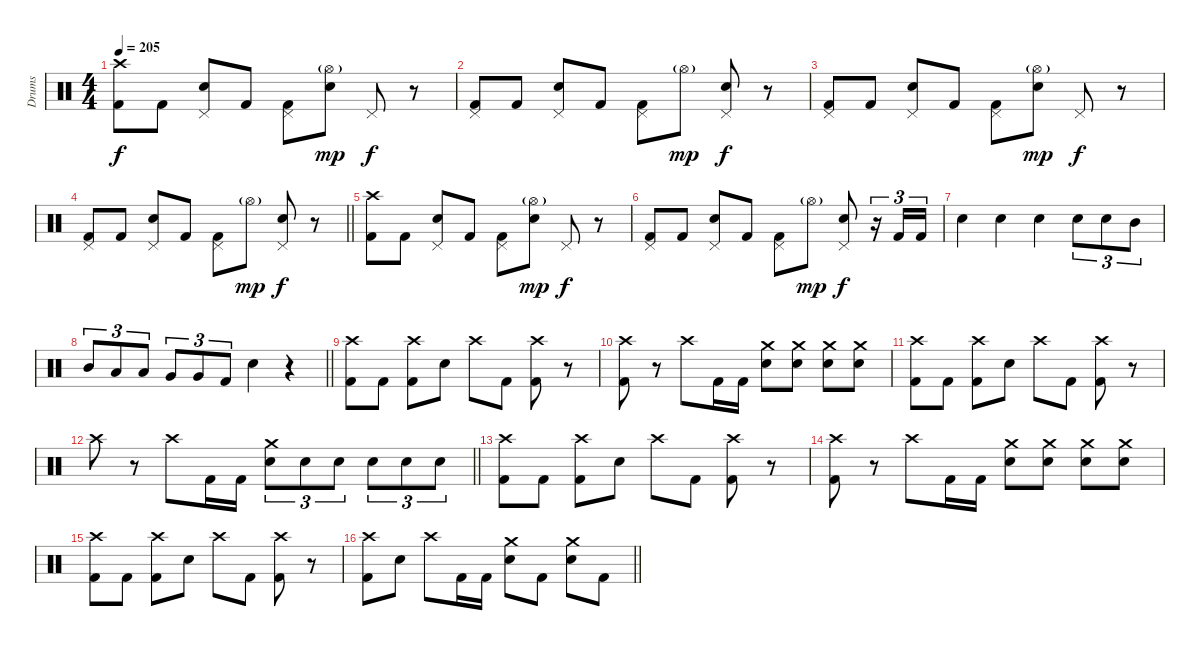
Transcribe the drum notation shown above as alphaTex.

\track ("Drums" "Drums") {instrument percussion}
\staff {score}
\articulation defaults
\ts (4 4)
\tempo 205
\clef neutral
\ks c
("Crash high (hit)" "Kick (hit) 2").8{dy f} "Kick (hit) 2".8 ("Pedal Hi-Hat (hit)" "Electric Snare (hit)").8 "Kick (hit) 2".8 ("Pedal Hi-Hat (hit)" "Kick (hit) 2").8 ("Hi-Hat (open)"{g} "Electric Snare (hit)").8{dy mp} "Pedal Hi-Hat (hit)".8{dy f} r.8 |
("Pedal Hi-Hat (hit)" "Kick (hit) 2").8 "Kick (hit) 2".8 ("Pedal Hi-Hat (hit)" "Electric Snare (hit)").8 "Kick (hit) 2".8 ("Pedal Hi-Hat (hit)" "Kick (hit) 2").8 "Hi-Hat (open)"{g}.8{dy mp} ("Pedal Hi-Hat (hit)" "Electric Snare (hit)").8{dy f} r.8 |
("Pedal Hi-Hat (hit)" "Kick (hit) 2").8 "Kick (hit) 2".8 ("Pedal Hi-Hat (hit)" "Electric Snare (hit)").8 "Kick (hit) 2".8 ("Pedal Hi-Hat (hit)" "Kick (hit) 2").8 ("Hi-Hat (open)"{g} "Electric Snare (hit)").8{dy mp} "Pedal Hi-Hat (hit)".8{dy f} r.8 |
\barLineRight lightlight
("Pedal Hi-Hat (hit)" "Kick (hit) 2").8 "Kick (hit) 2".8 ("Pedal Hi-Hat (hit)" "Electric Snare (hit)").8 "Kick (hit) 2".8 ("Pedal Hi-Hat (hit)" "Kick (hit) 2").8 "Hi-Hat (open)"{g}.8{dy mp} ("Pedal Hi-Hat (hit)" "Electric Snare (hit)").8{dy f} r.8 |
("Crash high (hit)" "Kick (hit) 2").8 "Kick (hit) 2".8 ("Pedal Hi-Hat (hit)" "Electric Snare (hit)").8 "Kick (hit) 2".8 ("Pedal Hi-Hat (hit)" "Kick (hit) 2").8 ("Hi-Hat (open)"{g} "Electric Snare (hit)").8{dy mp} "Pedal Hi-Hat (hit)".8{dy f} r.8 |
("Pedal Hi-Hat (hit)" "Kick (hit) 2").8 "Kick (hit) 2".8 ("Pedal Hi-Hat (hit)" "Electric Snare (hit)").8 "Kick (hit) 2".8 ("Pedal Hi-Hat (hit)" "Kick (hit) 2").8 "Hi-Hat (open)"{g}.8{dy mp} ("Pedal Hi-Hat (hit)" "Electric Snare (hit)").8{dy f} r.16{tu (3 2)} "Kick (hit) 2".16{tu (3 2)} "Kick (hit) 2".16{tu (3 2)} |
"Electric Snare (hit)".4 "Electric Snare (hit)".4 "Electric Snare (hit)".4 "Electric Snare (hit)".8{tu (3 2)} "Electric Snare (hit)".8{tu (3 2)} "Mid Tom (hit)".8{tu (3 2)} |
\barLineRight lightlight "Mid Tom (hit)".8{tu (3 2)} "Low Tom (hit)".8{tu (3 2)} "Low Tom (hit)".8{tu (3 2)} "Very Low Tom (hit)".8{tu (3 2)} "Very Low Tom (hit)".8{tu (3 2)} "Kick (hit) 2".8{tu (3 2)} "Electric Snare (hit)".4
r.4 |
("Crash high (hit)" "Kick (hit) 2").8 "Kick (hit) 2".8 ("Crash high (hit)" "Kick (hit) 2").8 "Electric Snare (hit)".8 "Crash high (hit)".8 "Kick (hit) 2".8 ("Crash high (hit)" "Kick (hit) 2").8 r.8 |
("Crash high (hit)" "Kick (hit) 2").8 r.8 "Crash high (hit)".8 "Kick (hit) 2".16 "Kick (hit) 2".16 ("Crash medium (hit)" "Electric Snare (hit)").8 ("Crash medium (hit)" "Electric Snare (hit)").8 ("Crash medium (hit)" "Electric Snare (hit)").8 ("Crash medium (hit)" "Electric Snare (hit)").8 |
("Crash high (hit)" "Kick (hit) 2").8 "Kick (hit) 2".8 ("Crash high (hit)" "Kick (hit) 2").8 "Electric Snare (hit)".8 "Crash high (hit)".8 "Kick (hit) 2".8 ("Crash high (hit)" "Kick (hit) 2").8 r.8 |
\barLineRight lightlight "Crash high (hit)".8
r.8 "Crash high (hit)".8 "Kick (hit) 2".16 "Kick (hit) 2".16 ("Crash medium (hit)" "Electric Snare (hit)").8{tu (3 2)} "Electric Snare (hit)".8{tu (3 2)} "Electric Snare (hit)".8{tu (3 2)} "Electric Snare (hit)".8{tu (3 2)} "Electric Snare (hit)".8{tu (3 2)} "Electric Snare (hit)".8{tu (3 2)} |
("Crash high (hit)" "Kick (hit) 2").8 "Kick (hit) 2".8 ("Crash high (hit)" "Kick (hit) 2").8 "Electric Snare (hit)".8 "Crash high (hit)".8 "Kick (hit) 2".8 ("Crash high (hit)" "Kick (hit) 2").8 r.8 |
("Crash high (hit)" "Kick (hit) 2").8 r.8 "Crash high (hit)".8 "Kick (hit) 2".16 "Kick (hit) 2".16 ("Crash medium (hit)" "Electric Snare (hit)").8 ("Crash medium (hit)" "Electric Snare (hit)").8 ("Crash medium (hit)" "Electric Snare (hit)").8 ("Crash medium (hit)" "Electric Snare (hit)").8 |
("Crash high (hit)" "Kick (hit) 2").8 "Kick (hit) 2".8 ("Crash high (hit)" "Kick (hit) 2").8 "Electric Snare (hit)".8 "Crash high (hit)".8 "Kick (hit) 2".8 ("Crash high (hit)" "Kick (hit) 2").8 r.8 |
\barLineRight lightlight
("Crash high (hit)" "Kick (hit) 2").8 "Electric Snare (hit)".8 "Crash high (hit)".8 "Kick (hit) 2".16 "Kick (hit) 2".16 ("Crash medium (hit)" "Electric Snare (hit)").8 "Kick (hit) 2".8 ("Crash medium (hit)" "Electric Snare (hit)").8 "Kick (hit) 2".8
